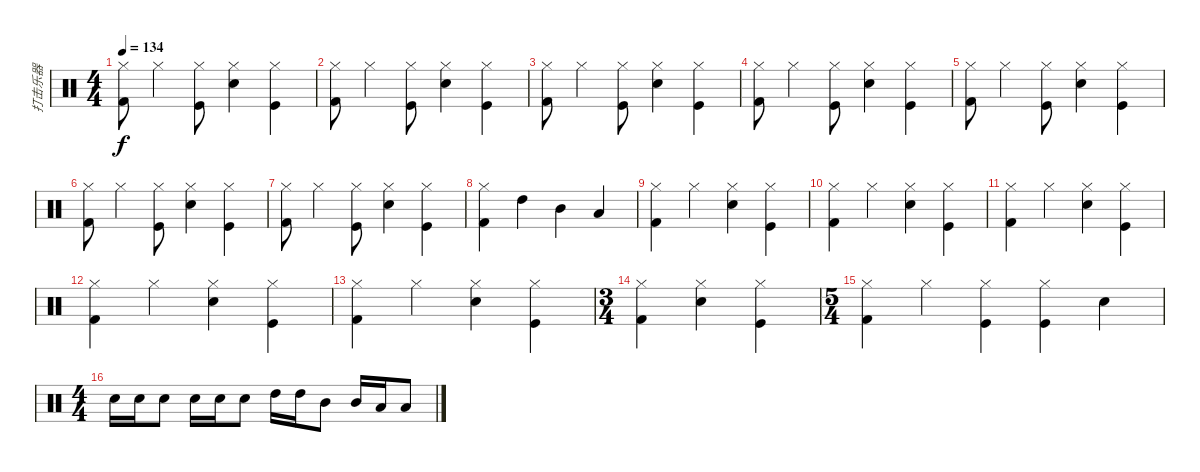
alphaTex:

\track ("打击乐器" "打击乐器") {instrument percussion}
\staff {score}
\articulation defaults
\ts (4 4)
\tempo 134
\clef neutral
\ks c
("Kick (hit) 2" "Hi-Hat (closed)").8{dy f} "Hi-Hat (closed)".4 ("Hi-Hat (closed)" "Kick (hit)").8 ("Snare (hit) 2" "Hi-Hat (closed)").4 ("Kick (hit)" "Hi-Hat (closed)").4 |
("Kick (hit) 2" "Hi-Hat (closed)").8 "Hi-Hat (closed)".4 ("Hi-Hat (closed)" "Kick (hit)").8 ("Snare (hit) 2" "Hi-Hat (closed)").4 ("Kick (hit)" "Hi-Hat (closed)").4 |
("Kick (hit) 2" "Hi-Hat (closed)").8 "Hi-Hat (closed)".4 ("Hi-Hat (closed)" "Kick (hit)").8 ("Snare (hit) 2" "Hi-Hat (closed)").4 ("Kick (hit)" "Hi-Hat (closed)").4 |
("Kick (hit) 2" "Hi-Hat (closed)").8 "Hi-Hat (closed)".4 ("Hi-Hat (closed)" "Kick (hit)").8 ("Snare (hit) 2" "Hi-Hat (closed)").4 ("Kick (hit)" "Hi-Hat (closed)").4 |
("Kick (hit) 2" "Hi-Hat (closed)").8 "Hi-Hat (closed)".4 ("Hi-Hat (closed)" "Kick (hit)").8 ("Snare (hit) 2" "Hi-Hat (closed)").4 ("Kick (hit)" "Hi-Hat (closed)").4 |
("Kick (hit) 2" "Hi-Hat (closed)").8 "Hi-Hat (closed)".4 ("Hi-Hat (closed)" "Kick (hit)").8 ("Snare (hit) 2" "Hi-Hat (closed)").4 ("Kick (hit)" "Hi-Hat (closed)").4 |
("Kick (hit) 2" "Hi-Hat (closed)").8 "Hi-Hat (closed)".4 ("Hi-Hat (closed)" "Kick (hit)").8 ("Snare (hit) 2" "Hi-Hat (closed)").4 ("Kick (hit)" "Hi-Hat (closed)").4 |
("Hi-Hat (closed)" "Kick (hit) 2").4 "High Tom (hit)".4 "Mid Tom (hit)".4 "Low Tom (hit)".4 |
("Kick (hit) 2" "Hi-Hat (closed)").4 "Hi-Hat (closed)".4 ("Snare (hit) 2" "Hi-Hat (closed)").4 ("Hi-Hat (closed)" "Kick (hit)").4 |
("Kick (hit) 2" "Hi-Hat (closed)").4 "Hi-Hat (closed)".4 ("Snare (hit) 2" "Hi-Hat (closed)").4 ("Hi-Hat (closed)" "Kick (hit)").4 |
("Kick (hit) 2" "Hi-Hat (closed)").4 "Hi-Hat (closed)".4 ("Snare (hit) 2" "Hi-Hat (closed)").4 ("Hi-Hat (closed)" "Kick (hit)").4 |
("Kick (hit) 2" "Hi-Hat (closed)").4 "Hi-Hat (closed)".4 ("Snare (hit) 2" "Hi-Hat (closed)").4 ("Hi-Hat (closed)" "Kick (hit)").4 |
("Kick (hit) 2" "Hi-Hat (closed)").4 "Hi-Hat (closed)".4 ("Snare (hit) 2" "Hi-Hat (closed)").4 ("Hi-Hat (closed)" "Kick (hit)").4 |
\ts (3 4)
("Hi-Hat (closed)" "Kick (hit) 2").4 ("Hi-Hat (closed)" "Snare (hit) 2").4 ("Hi-Hat (closed)" "Kick (hit)").4 |
\ts (5 4)
("Kick (hit) 2" "Hi-Hat (closed)").4 "Hi-Hat (closed)".4 ("Kick (hit)" "Hi-Hat (closed)").4 ("Hi-Hat (closed)" "Kick (hit)").4 "Snare (hit) 2".4 |
\ts (4 4)
"Snare (hit) 2".16 "Snare (hit) 2".16 "Snare (hit) 2".8 "Snare (hit) 2".16 "Snare (hit) 2".16 "Snare (hit) 2".8 "High Tom (hit)".16 "High Tom (hit)".16 "Mid Tom (hit)".8 "Mid Tom (hit)".16 "Low Tom (hit)".16 "Low Tom (hit)".8
